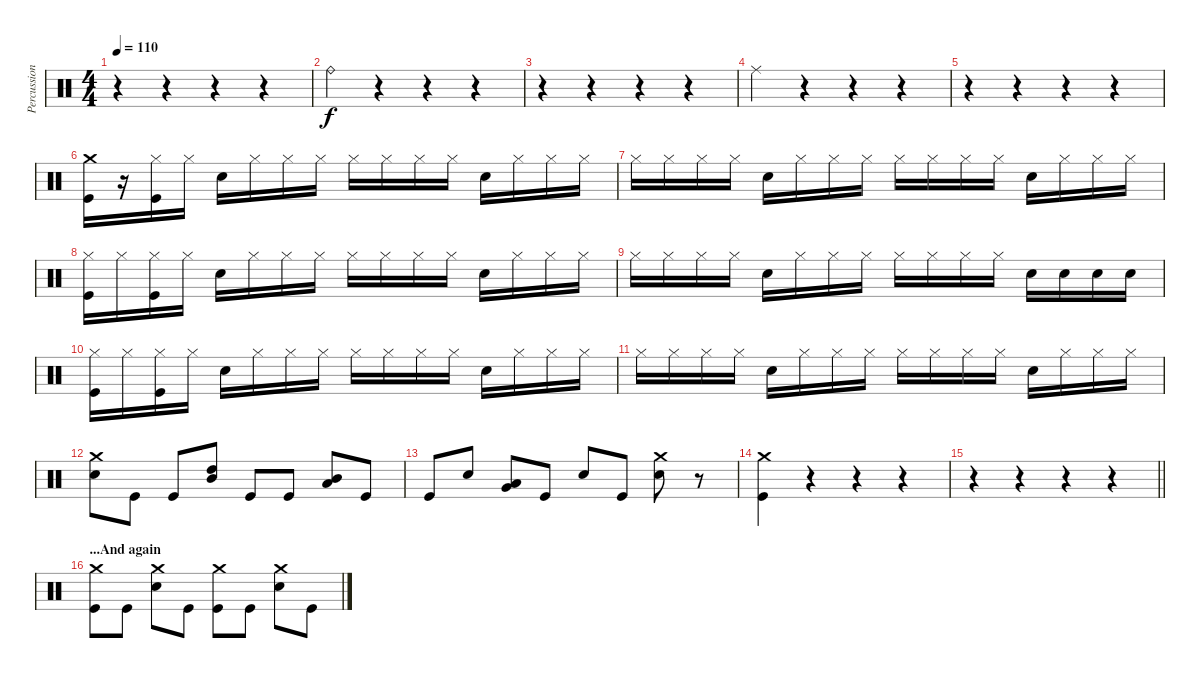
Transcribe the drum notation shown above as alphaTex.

\track ("Percussion" "Percussion") {instrument percussion}
\staff {score}
\articulation defaults
\ts (4 4)
\tempo 110
\clef neutral
\ks c
r.4{dy f} r.4 r.4 r.4 |
"Ride (bell)".4 r.4 r.4 r.4 |
r.4 r.4 r.4 r.4 |
"Ride (middle)".4 r.4 r.4 r.4 |
r.4 r.4 r.4 r.4 |
("Crash medium (hit)" "Kick (hit)").16 r.16 ("Hi-Hat (closed)" "Kick (hit)").16 "Hi-Hat (closed)".16 "Electric Snare (hit)".16 "Hi-Hat (closed)".16 "Hi-Hat (closed)".16 "Hi-Hat (closed)".16 "Hi-Hat (closed)".16 "Hi-Hat (closed)".16 "Hi-Hat (closed)".16 "Hi-Hat (closed)".16 "Electric Snare (hit)".16 "Hi-Hat (closed)".16 "Hi-Hat (closed)".16 "Hi-Hat (closed)".16 |
"Hi-Hat (closed)".16 "Hi-Hat (closed)".16 "Hi-Hat (closed)".16 "Hi-Hat (closed)".16 "Electric Snare (hit)".16 "Hi-Hat (closed)".16 "Hi-Hat (closed)".16 "Hi-Hat (closed)".16 "Hi-Hat (closed)".16 "Hi-Hat (closed)".16 "Hi-Hat (closed)".16 "Hi-Hat (closed)".16 "Electric Snare (hit)".16 "Hi-Hat (closed)".16 "Hi-Hat (closed)".16 "Hi-Hat (closed)".16 |
("Hi-Hat (closed)" "Kick (hit)").16 "Hi-Hat (closed)".16 ("Hi-Hat (closed)" "Kick (hit)").16 "Hi-Hat (closed)".16 "Electric Snare (hit)".16 "Hi-Hat (closed)".16 "Hi-Hat (closed)".16 "Hi-Hat (closed)".16 "Hi-Hat (closed)".16 "Hi-Hat (closed)".16 "Hi-Hat (closed)".16 "Hi-Hat (closed)".16 "Electric Snare (hit)".16 "Hi-Hat (closed)".16 "Hi-Hat (closed)".16 "Hi-Hat (closed)".16 |
"Hi-Hat (closed)".16 "Hi-Hat (closed)".16 "Hi-Hat (closed)".16 "Hi-Hat (closed)".16 "Electric Snare (hit)".16 "Hi-Hat (closed)".16 "Hi-Hat (closed)".16 "Hi-Hat (closed)".16 "Hi-Hat (closed)".16 "Hi-Hat (closed)".16 "Hi-Hat (closed)".16 "Hi-Hat (closed)".16 "Electric Snare (hit)".16 "Electric Snare (hit)".16 "Electric Snare (hit)".16 "Electric Snare (hit)".16 |
("Hi-Hat (closed)" "Kick (hit)").16 "Hi-Hat (closed)".16 ("Hi-Hat (closed)" "Kick (hit)").16 "Hi-Hat (closed)".16 "Electric Snare (hit)".16 "Hi-Hat (closed)".16 "Hi-Hat (closed)".16 "Hi-Hat (closed)".16 "Hi-Hat (closed)".16 "Hi-Hat (closed)".16 "Hi-Hat (closed)".16 "Hi-Hat (closed)".16 "Electric Snare (hit)".16 "Hi-Hat (closed)".16 "Hi-Hat (closed)".16 "Hi-Hat (closed)".16 |
"Hi-Hat (closed)".16 "Hi-Hat (closed)".16 "Hi-Hat (closed)".16 "Hi-Hat (closed)".16 "Electric Snare (hit)".16 "Hi-Hat (closed)".16 "Hi-Hat (closed)".16 "Hi-Hat (closed)".16 "Hi-Hat (closed)".16 "Hi-Hat (closed)".16 "Hi-Hat (closed)".16 "Hi-Hat (closed)".16 "Electric Snare (hit)".16 "Hi-Hat (closed)".16 "Hi-Hat (closed)".16 "Hi-Hat (closed)".16 |
("Crash medium (hit)" "Electric Snare (hit)").8 "Kick (hit)".8 "Kick (hit)".8 ("High Tom (hit)" "Mid Tom (hit)").8 "Kick (hit)".8 "Kick (hit)".8 ("Mid Tom (hit)" "Low Tom (hit)").8 "Kick (hit)".8 |
"Kick (hit)".8 "Electric Snare (hit)".8 ("Low Tom (hit)" "Very Low Tom (hit)").8 "Kick (hit)".8 "Electric Snare (hit)".8 "Kick (hit)".8 ("Crash medium (hit)" "Electric Snare (hit)").8 r.8 |
("Crash medium (hit)" "Kick (hit)").4 r.4 r.4 r.4 |
\barLineRight lightlight
r.4 r.4 r.4 r.4 |
\section ("" "...And again")
("Crash medium (hit)" "Kick (hit)").8 "Kick (hit)".8 ("Crash medium (hit)" "Electric Snare (hit)").8 "Kick (hit)".8 ("Crash medium (hit)" "Kick (hit)").8 "Kick (hit)".8 ("Crash medium (hit)" "Electric Snare (hit)").8 "Kick (hit)".8
